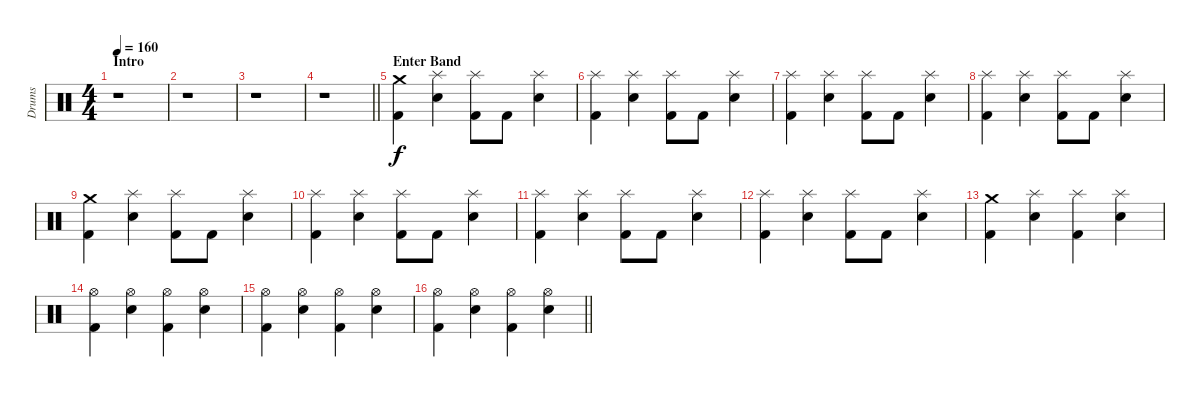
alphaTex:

\track ("Drums" "Drums") {instrument percussion}
\staff {score}
\articulation defaults
\ts (4 4)
\section ("" "Intro")
\tempo 160
\tempo 155
\tempo 160
\clef neutral
\ks c
r.1{dy f} |
r.1 |
r.1 |
\barLineRight lightlight
r.1 |
\section ("" "Enter Band")
("Crash medium (hit)" "Kick (hit) 2").4 ("Splash (hit)" "Electric Snare (hit)").4 ("Splash (hit)" "Kick (hit) 2").8 "Kick (hit) 2".8 ("Splash (hit)" "Electric Snare (hit)").4 |
("Splash (hit)" "Kick (hit) 2").4 ("Splash (hit)" "Electric Snare (hit)").4 ("Splash (hit)" "Kick (hit) 2").8 "Kick (hit) 2".8 ("Splash (hit)" "Electric Snare (hit)").4 |
("Splash (hit)" "Kick (hit) 2").4 ("Splash (hit)" "Electric Snare (hit)").4 ("Splash (hit)" "Kick (hit) 2").8 "Kick (hit) 2".8 ("Splash (hit)" "Electric Snare (hit)").4 |
("Splash (hit)" "Kick (hit) 2").4 ("Splash (hit)" "Electric Snare (hit)").4 ("Splash (hit)" "Kick (hit) 2").8 "Kick (hit) 2".8 ("Splash (hit)" "Electric Snare (hit)").4 |
("Crash medium (hit)" "Kick (hit) 2").4 ("Splash (hit)" "Electric Snare (hit)").4 ("Splash (hit)" "Kick (hit) 2").8 "Kick (hit) 2".8 ("Splash (hit)" "Electric Snare (hit)").4 |
("Splash (hit)" "Kick (hit) 2").4 ("Splash (hit)" "Electric Snare (hit)").4 ("Splash (hit)" "Kick (hit) 2").8 "Kick (hit) 2".8 ("Splash (hit)" "Electric Snare (hit)").4 |
("Splash (hit)" "Kick (hit) 2").4 ("Splash (hit)" "Electric Snare (hit)").4 ("Splash (hit)" "Kick (hit) 2").8 "Kick (hit) 2".8 ("Splash (hit)" "Electric Snare (hit)").4 |
("Splash (hit)" "Kick (hit) 2").4 ("Splash (hit)" "Electric Snare (hit)").4 ("Splash (hit)" "Kick (hit) 2").8 "Kick (hit) 2".8 ("Splash (hit)" "Electric Snare (hit)").4 |
("Crash medium (hit)" "Kick (hit) 2").4 ("Splash (hit)" "Electric Snare (hit)").4 ("Splash (hit)" "Kick (hit) 2").4 ("Splash (hit)" "Electric Snare (hit)").4 |
("Hi-Hat (open)" "Kick (hit) 2").4 ("Hi-Hat (open)" "Electric Snare (hit)").4 ("Hi-Hat (open)" "Kick (hit) 2").4 ("Hi-Hat (open)" "Electric Snare (hit)").4 |
("Kick (hit) 2" "Hi-Hat (open)").4 ("Electric Snare (hit)" "Hi-Hat (open)").4 ("Kick (hit) 2" "Hi-Hat (open)").4 ("Electric Snare (hit)" "Hi-Hat (open)").4 |
\barLineRight lightlight
("Kick (hit) 2" "Hi-Hat (open)").4 ("Electric Snare (hit)" "Hi-Hat (open)").4 ("Kick (hit) 2" "Hi-Hat (open)").4 ("Electric Snare (hit)" "Hi-Hat (open)").4
